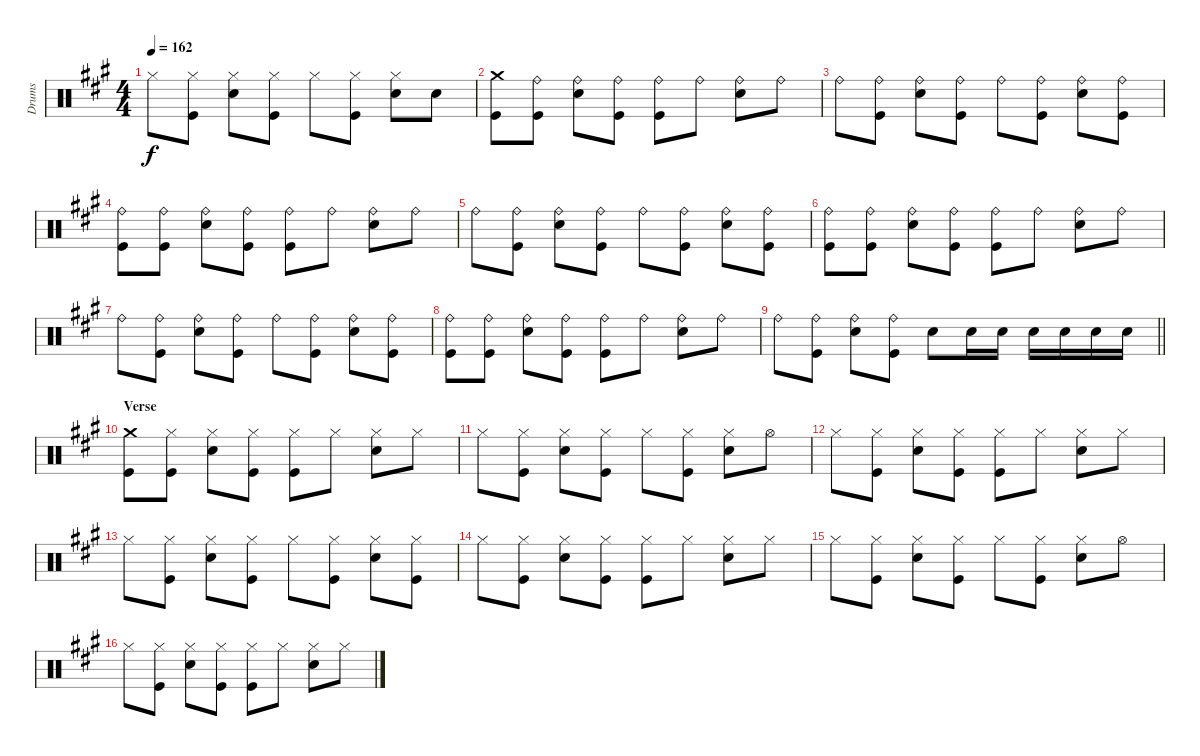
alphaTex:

\track ("Drums" "Drums") {instrument percussion}
\staff {score}
\articulation defaults
\ts (4 4)
\tempo 162
\clef neutral
\ks a "Hi-Hat (closed)".8{dy f}
("Kick (hit)" "Hi-Hat (closed)").8 ("Hi-Hat (closed)" "Snare (hit) 2").8 ("Kick (hit)" "Hi-Hat (closed)").8 "Hi-Hat (closed)".8 ("Kick (hit)" "Hi-Hat (closed)").8 ("Hi-Hat (closed)" "Snare (hit) 2").8 "Snare (hit) 2".8 |
("Crash medium (hit)" "Kick (hit)").8 ("Ride (bell)" "Kick (hit)").8 ("Ride (bell)" "Snare (hit) 2").8 ("Ride (bell)" "Kick (hit)").8 ("Ride (bell)" "Kick (hit)").8 "Ride (bell)".8 ("Ride (bell)" "Snare (hit) 2").8 "Ride (bell)".8 |
"Ride (bell)".8 ("Ride (bell)" "Kick (hit)").8 ("Ride (bell)" "Snare (hit) 2").8 ("Ride (bell)" "Kick (hit)").8 "Ride (bell)".8 ("Ride (bell)" "Kick (hit)").8 ("Ride (bell)" "Snare (hit) 2").8 ("Ride (bell)" "Kick (hit)").8 |
("Kick (hit)" "Ride (bell)").8 ("Ride (bell)" "Kick (hit)").8 ("Ride (bell)" "Snare (hit) 2").8 ("Ride (bell)" "Kick (hit)").8 ("Ride (bell)" "Kick (hit)").8 "Ride (bell)".8 ("Ride (bell)" "Snare (hit) 2").8 "Ride (bell)".8 |
"Ride (bell)".8 ("Ride (bell)" "Kick (hit)").8 ("Ride (bell)" "Snare (hit) 2").8 ("Ride (bell)" "Kick (hit)").8 "Ride (bell)".8 ("Ride (bell)" "Kick (hit)").8 ("Ride (bell)" "Snare (hit) 2").8 ("Ride (bell)" "Kick (hit)").8 |
("Kick (hit)" "Ride (bell)").8 ("Ride (bell)" "Kick (hit)").8 ("Ride (bell)" "Snare (hit) 2").8 ("Ride (bell)" "Kick (hit)").8 ("Ride (bell)" "Kick (hit)").8 "Ride (bell)".8 ("Ride (bell)" "Snare (hit) 2").8 "Ride (bell)".8 |
"Ride (bell)".8 ("Ride (bell)" "Kick (hit)").8 ("Ride (bell)" "Snare (hit) 2").8 ("Ride (bell)" "Kick (hit)").8 "Ride (bell)".8 ("Ride (bell)" "Kick (hit)").8 ("Ride (bell)" "Snare (hit) 2").8 ("Ride (bell)" "Kick (hit)").8 |
("Kick (hit)" "Ride (bell)").8 ("Ride (bell)" "Kick (hit)").8 ("Ride (bell)" "Snare (hit) 2").8 ("Ride (bell)" "Kick (hit)").8 ("Ride (bell)" "Kick (hit)").8 "Ride (bell)".8 ("Ride (bell)" "Snare (hit) 2").8 "Ride (bell)".8 |
\barLineRight lightlight "Ride (bell)".8
("Ride (bell)" "Kick (hit)").8 ("Ride (bell)" "Snare (hit) 2").8 ("Ride (bell)" "Kick (hit)").8 "Snare (hit) 2".8 "Snare (hit) 2".16 "Snare (hit) 2".16 "Snare (hit) 2".16 "Snare (hit) 2".16 "Snare (hit) 2".16 "Snare (hit) 2".16 |
\section ("" "Verse")
("Kick (hit)" "Crash medium (hit)").8 ("Kick (hit)" "Hi-Hat (closed)").8 ("Hi-Hat (closed)" "Snare (hit) 2").8 ("Kick (hit)" "Hi-Hat (closed)").8 ("Hi-Hat (closed)" "Kick (hit)").8 "Hi-Hat (closed)".8 ("Hi-Hat (closed)" "Snare (hit) 2").8 "Hi-Hat (closed)".8 |
"Hi-Hat (closed)".8 ("Kick (hit)" "Hi-Hat (closed)").8 ("Hi-Hat (closed)" "Snare (hit) 2").8 ("Kick (hit)" "Hi-Hat (closed)").8 "Hi-Hat (closed)".8 ("Kick (hit)" "Hi-Hat (closed)").8 ("Hi-Hat (closed)" "Snare (hit) 2").8 "Hi-Hat (open)".8 |
"Hi-Hat (closed)".8 ("Kick (hit)" "Hi-Hat (closed)").8 ("Hi-Hat (closed)" "Snare (hit) 2").8 ("Kick (hit)" "Hi-Hat (closed)").8 ("Hi-Hat (closed)" "Kick (hit)").8 "Hi-Hat (closed)".8 ("Hi-Hat (closed)" "Snare (hit) 2").8 "Hi-Hat (closed)".8 |
"Hi-Hat (closed)".8 ("Kick (hit)" "Hi-Hat (closed)").8 ("Hi-Hat (closed)" "Snare (hit) 2").8 ("Kick (hit)" "Hi-Hat (closed)").8 "Hi-Hat (closed)".8 ("Kick (hit)" "Hi-Hat (closed)").8 ("Hi-Hat (closed)" "Snare (hit) 2").8 ("Kick (hit)" "Hi-Hat (closed)").8 |
"Hi-Hat (closed)".8 ("Kick (hit)" "Hi-Hat (closed)").8 ("Hi-Hat (closed)" "Snare (hit) 2").8 ("Kick (hit)" "Hi-Hat (closed)").8 ("Hi-Hat (closed)" "Kick (hit)").8 "Hi-Hat (closed)".8 ("Hi-Hat (closed)" "Snare (hit) 2").8 "Hi-Hat (closed)".8 |
"Hi-Hat (closed)".8 ("Kick (hit)" "Hi-Hat (closed)").8 ("Hi-Hat (closed)" "Snare (hit) 2").8 ("Kick (hit)" "Hi-Hat (closed)").8 "Hi-Hat (closed)".8 ("Kick (hit)" "Hi-Hat (closed)").8 ("Hi-Hat (closed)" "Snare (hit) 2").8 "Hi-Hat (open)".8 |
"Hi-Hat (closed)".8 ("Kick (hit)" "Hi-Hat (closed)").8 ("Hi-Hat (closed)" "Snare (hit) 2").8 ("Kick (hit)" "Hi-Hat (closed)").8 ("Hi-Hat (closed)" "Kick (hit)").8 "Hi-Hat (closed)".8 ("Hi-Hat (closed)" "Snare (hit) 2").8 "Hi-Hat (closed)".8
